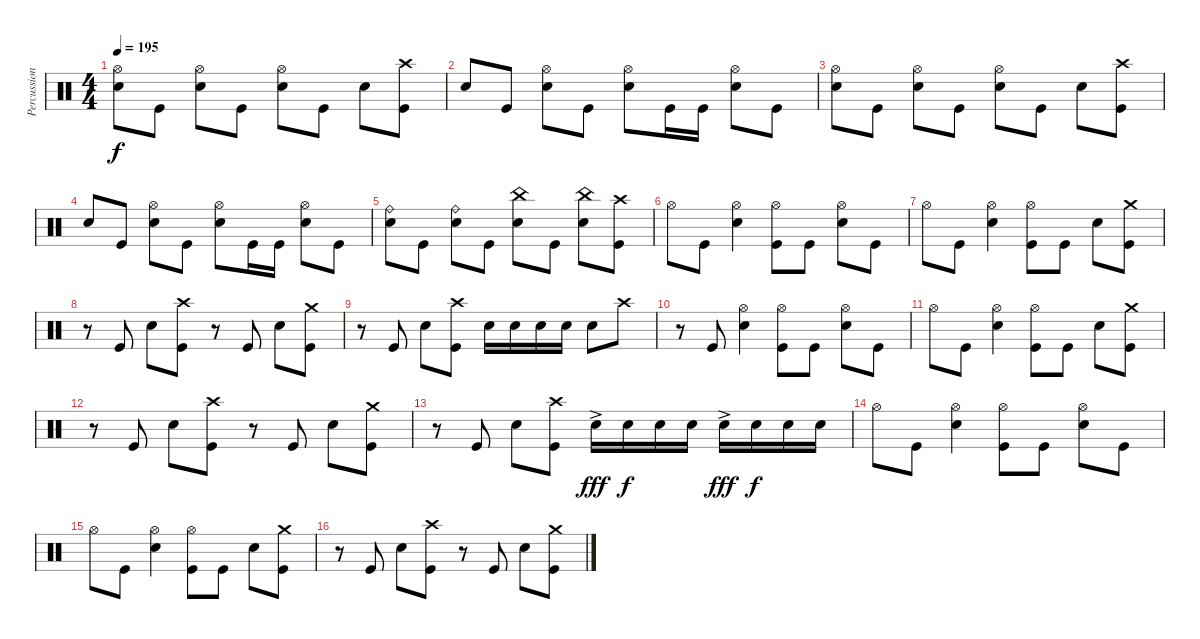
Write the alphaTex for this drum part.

\track ("Percussion" "Percussion") {instrument percussion}
\staff {score}
\articulation defaults
\ts (4 4)
\tempo 195
\clef neutral
\ks c
("Hi-Hat (open)" "Electric Snare (hit)").8{dy f} "Kick (hit)".8 ("Hi-Hat (open)" "Electric Snare (hit)").8 "Kick (hit)".8 ("Hi-Hat (open)" "Electric Snare (hit)").8 "Kick (hit)".8 "Electric Snare (hit)".8 ("Crash high (hit)" "Kick (hit)").8 |
"Electric Snare (hit)".8 "Kick (hit)".8 ("Hi-Hat (open)" "Electric Snare (hit)").8 "Kick (hit)".8 ("Hi-Hat (open)" "Electric Snare (hit)").8 "Kick (hit)".16 "Kick (hit)".16 ("Hi-Hat (open)" "Electric Snare (hit)").8 "Kick (hit)".8 |
("Hi-Hat (open)" "Electric Snare (hit)").8 "Kick (hit)".8 ("Hi-Hat (open)" "Electric Snare (hit)").8 "Kick (hit)".8 ("Hi-Hat (open)" "Electric Snare (hit)").8 "Kick (hit)".8 "Electric Snare (hit)".8 ("Crash high (hit)" "Kick (hit)").8 |
"Electric Snare (hit)".8 "Kick (hit)".8 ("Hi-Hat (open)" "Electric Snare (hit)").8 "Kick (hit)".8 ("Hi-Hat (open)" "Electric Snare (hit)").8 "Kick (hit)".16 "Kick (hit)".16 ("Hi-Hat (open)" "Electric Snare (hit)").8 "Kick (hit)".8 |
("Ride (bell)" "Electric Snare (hit)").8 "Kick (hit)".8 ("Ride (bell)" "Electric Snare (hit)").8 "Kick (hit)".8 ("China (hit)" "Electric Snare (hit)").8 "Kick (hit)".8 ("China (hit)" "Electric Snare (hit)").8 ("Crash high (hit)" "Kick (hit)").8 |
"Hi-Hat (open)".8 "Kick (hit)".8 ("Hi-Hat (open)" "Electric Snare (hit)").4 ("Hi-Hat (open)" "Kick (hit)").8 "Kick (hit)".8 ("Hi-Hat (open)" "Electric Snare (hit)").8 "Kick (hit)".8 |
"Hi-Hat (open)".8 "Kick (hit)".8 ("Hi-Hat (open)" "Electric Snare (hit)").4 ("Hi-Hat (open)" "Kick (hit)").8 "Kick (hit)".8 "Electric Snare (hit)".8 ("Crash medium (hit)" "Kick (hit)").8 |
r.8 "Kick (hit)".8 "Electric Snare (hit)".8 ("Crash high (hit)" "Kick (hit)").8 r.8 "Kick (hit)".8 "Electric Snare (hit)".8 ("Crash medium (hit)" "Kick (hit)").8 |
r.8 "Kick (hit)".8 "Electric Snare (hit)".8 ("Crash high (hit)" "Kick (hit)").8 "Electric Snare (hit)".16 "Electric Snare (hit)".16 "Electric Snare (hit)".16 "Electric Snare (hit)".16 "Electric Snare (hit)".8 "Crash high (hit)".8 |
r.8 "Kick (hit)".8 ("Hi-Hat (open)" "Electric Snare (hit)").4 ("Hi-Hat (open)" "Kick (hit)").8 "Kick (hit)".8 ("Hi-Hat (open)" "Electric Snare (hit)").8 "Kick (hit)".8 |
"Hi-Hat (open)".8 "Kick (hit)".8 ("Hi-Hat (open)" "Electric Snare (hit)").4 ("Hi-Hat (open)" "Kick (hit)").8 "Kick (hit)".8 "Electric Snare (hit)".8 ("Crash medium (hit)" "Kick (hit)").8 |
r.8 "Kick (hit)".8 "Electric Snare (hit)".8 ("Crash high (hit)" "Kick (hit)").8 r.8 "Kick (hit)".8 "Electric Snare (hit)".8 ("Crash medium (hit)" "Kick (hit)").8 |
r.8 "Kick (hit)".8 "Electric Snare (hit)".8 ("Crash high (hit)" "Kick (hit)").8 "Electric Snare (hit)"{ac}.16{dy fff} "Electric Snare (hit)".16{dy f} "Electric Snare (hit)".16 "Electric Snare (hit)".16 "Electric Snare (hit)"{ac}.16{dy fff} "Electric Snare (hit)".16{dy f} "Electric Snare (hit)".16 "Electric Snare (hit)".16 |
"Hi-Hat (open)".8 "Kick (hit)".8 ("Hi-Hat (open)" "Electric Snare (hit)").4 ("Hi-Hat (open)" "Kick (hit)").8 "Kick (hit)".8 ("Hi-Hat (open)" "Electric Snare (hit)").8 "Kick (hit)".8 |
"Hi-Hat (open)".8 "Kick (hit)".8 ("Hi-Hat (open)" "Electric Snare (hit)").4 ("Hi-Hat (open)" "Kick (hit)").8 "Kick (hit)".8 "Electric Snare (hit)".8 ("Crash medium (hit)" "Kick (hit)").8 |
r.8 "Kick (hit)".8 "Electric Snare (hit)".8 ("Crash high (hit)" "Kick (hit)").8 r.8 "Kick (hit)".8 "Electric Snare (hit)".8 ("Crash medium (hit)" "Kick (hit)").8
